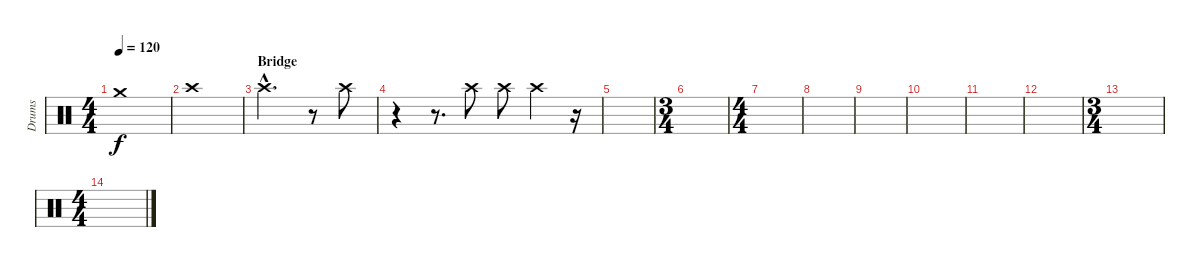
\track ("Drums" "Drums") {instrument percussion}
\staff {score}
\articulation defaults
\ts (4 4)
\tempo 120
\clef neutral
\ks c "Crash medium (hit)".1{dy f}
|
"Crash high (hit)".1 |
\section ("" "Bridge")
"Crash high (hit)"{hac}.2{d} r.8 "Crash high (hit)".8 |
r.4 r.8{d} "Crash high (hit)".8 "Crash high (hit)".8 "Crash high (hit)".4 r.16 |
|
\ts (3 4)
|
\ts (4 4)
|
|
|
|
|
|
\ts (3 4)
|
\ts (4 4)
